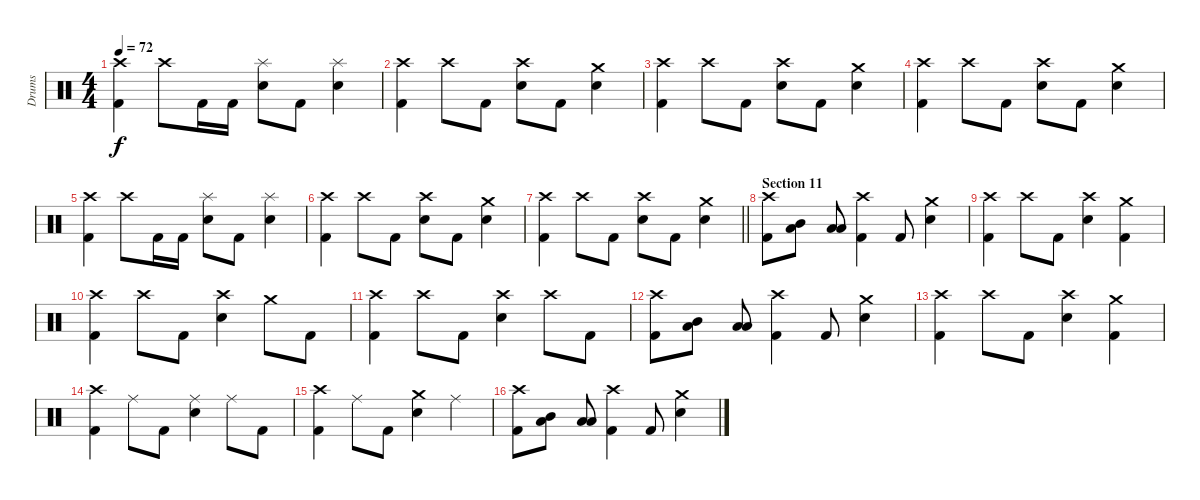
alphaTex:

\track ("Drums" "Drums") {instrument percussion}
\staff {score}
\articulation defaults
\ts (4 4)
\tempo 72
\clef neutral
\ks c
("Crash high (hit)" "Kick (hit) 2").4{dy f} "Crash high (hit)".8 "Kick (hit) 2".16 "Kick (hit) 2".16 ("Splash (hit)" "Electric Snare (hit)").8 "Kick (hit) 2".8 ("Splash (hit)" "Electric Snare (hit)").4 |
("Crash high (hit)" "Kick (hit) 2").4 "Crash high (hit)".8 "Kick (hit) 2".8 ("Crash high (hit)" "Electric Snare (hit)").8 "Kick (hit) 2".8 ("Crash medium (hit)" "Electric Snare (hit)").4 |
("Crash high (hit)" "Kick (hit) 2").4 "Crash high (hit)".8 "Kick (hit) 2".8 ("Crash high (hit)" "Electric Snare (hit)").8 "Kick (hit) 2".8 ("Crash medium (hit)" "Electric Snare (hit)").4 |
("Crash high (hit)" "Kick (hit) 2").4 "Crash high (hit)".8 "Kick (hit) 2".8 ("Crash high (hit)" "Electric Snare (hit)").8 "Kick (hit) 2".8 ("Crash medium (hit)" "Electric Snare (hit)").4 |
("Crash high (hit)" "Kick (hit) 2").4 "Crash high (hit)".8 "Kick (hit) 2".16 "Kick (hit) 2".16 ("Splash (hit)" "Electric Snare (hit)").8 "Kick (hit) 2".8 ("Splash (hit)" "Electric Snare (hit)").4 |
("Crash high (hit)" "Kick (hit) 2").4 "Crash high (hit)".8 "Kick (hit) 2".8 ("Crash high (hit)" "Electric Snare (hit)").8 "Kick (hit) 2".8 ("Crash medium (hit)" "Electric Snare (hit)").4 |
\barLineRight lightlight
("Crash high (hit)" "Kick (hit) 2").4 "Crash high (hit)".8 "Kick (hit) 2".8 ("Crash high (hit)" "Electric Snare (hit)").8 "Kick (hit) 2".8 ("Crash medium (hit)" "Electric Snare (hit)").4 |
\section ("" "Section 11")
("Crash high (hit)" "Kick (hit) 2").8 ("Mid Tom (hit)" "Low Floor Tom (hit)").8 ("Low Tom (hit)" "Low Floor Tom (hit)").8 ("Crash high (hit)" "Kick (hit) 2").4 "Kick (hit) 2".8 ("Crash medium (hit)" "Electric Snare (hit)").4 |
("Crash high (hit)" "Kick (hit) 2").4 "Crash high (hit)".8 "Kick (hit) 2".8 ("Crash high (hit)" "Electric Snare (hit)").4 ("Crash medium (hit)" "Kick (hit) 2").4 |
("Crash high (hit)" "Kick (hit) 2").4 "Crash high (hit)".8 "Kick (hit) 2".8 ("Crash high (hit)" "Electric Snare (hit)").4 "Crash medium (hit)".8 "Kick (hit) 2".8 |
("Crash high (hit)" "Kick (hit) 2").4 "Crash high (hit)".8 "Kick (hit) 2".8 ("Crash high (hit)" "Electric Snare (hit)").4 "Crash high (hit)".8 "Kick (hit) 2".8 |
("Crash high (hit)" "Kick (hit) 2").8 ("Mid Tom (hit)" "Low Floor Tom (hit)").8 ("Low Tom (hit)" "Low Floor Tom (hit)").8 ("Crash high (hit)" "Kick (hit) 2").4 "Kick (hit) 2".8 ("Crash medium (hit)" "Electric Snare (hit)").4 |
("Crash high (hit)" "Kick (hit) 2").4 "Crash high (hit)".8 "Kick (hit) 2".8 ("Crash high (hit)" "Electric Snare (hit)").4 ("Crash medium (hit)" "Kick (hit) 2").4 |
("Crash high (hit)" "Kick (hit) 2").4 "Ride (middle)".8 "Kick (hit) 2".8 ("Ride (middle)" "Electric Snare (hit)").4 "Ride (middle)".8 "Kick (hit) 2".8 |
("Crash high (hit)" "Kick (hit) 2").4 "Ride (middle)".8 "Kick (hit) 2".8 ("Crash medium (hit)" "Electric Snare (hit)").4 "Ride (middle)".4 |
("Crash high (hit)" "Kick (hit) 2").8 ("Mid Tom (hit)" "Low Floor Tom (hit)").8 ("Low Tom (hit)" "Low Floor Tom (hit)").8 ("Crash high (hit)" "Kick (hit) 2").4 "Kick (hit) 2".8 ("Crash medium (hit)" "Electric Snare (hit)").4
